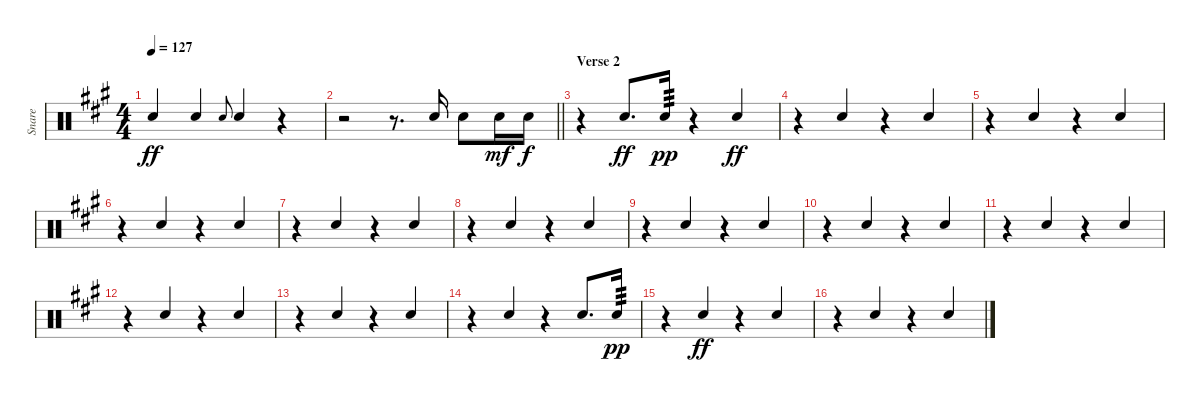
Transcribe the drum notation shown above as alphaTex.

\track ("Snare" "Snare") {instrument percussion}
\staff {score}
\articulation defaults
\ts (4 4)
\tempo 127
\clef neutral
\ks a "Electric Snare (hit)".4{dy ff beam Up} "Electric Snare (hit)".4{beam Up} "Electric Snare (hit)".8{gr onbeat} "Electric Snare (hit)".4{beam Up}
r.4 |
\barLineRight lightlight
r.2{beam Up} r.8{d beam Up} "Electric Snare (hit)".16{beam Down} "Electric Snare (hit)".8{beam Down} "Electric Snare (hit)".16{dy mf beam Down} "Electric Snare (hit)".16{dy f beam Down} |
\section ("" "Verse 2")
r.4 "Electric Snare (hit)".8{d dy ff beam Up} "Electric Snare (hit)".16{tp 3 dy pp beam Up} r.4{beam merge} "Electric Snare (hit)".4{dy ff beam Up} |
r.4{beam merge} "Electric Snare (hit)".4{beam Up} r.4{beam merge} "Electric Snare (hit)".4{beam Up} |
r.4{beam merge} "Electric Snare (hit)".4{beam Up} r.4{beam merge} "Electric Snare (hit)".4{beam Up} |
r.4{beam merge} "Electric Snare (hit)".4{beam Up} r.4{beam merge} "Electric Snare (hit)".4{beam Up} |
r.4{beam merge} "Electric Snare (hit)".4{beam Up} r.4{beam merge} "Electric Snare (hit)".4{beam Up} |
r.4{beam merge} "Electric Snare (hit)".4{beam Up} r.4{beam merge} "Electric Snare (hit)".4{beam Up} |
r.4{beam merge} "Electric Snare (hit)".4{beam Up} r.4{beam merge} "Electric Snare (hit)".4{beam Up} |
r.4{beam merge} "Electric Snare (hit)".4{beam Up} r.4{beam merge} "Electric Snare (hit)".4{beam Up} |
r.4{beam merge} "Electric Snare (hit)".4{beam Up} r.4{beam merge} "Electric Snare (hit)".4{beam Up} |
r.4{beam merge} "Electric Snare (hit)".4{beam Up} r.4{beam merge} "Electric Snare (hit)".4{beam Up} |
r.4{beam merge} "Electric Snare (hit)".4{beam Up} r.4{beam merge} "Electric Snare (hit)".4{beam Up} |
r.4{beam merge} "Electric Snare (hit)".4{beam Up} r.4 "Electric Snare (hit)".8{d beam Up} "Electric Snare (hit)".16{tp 3 dy pp beam Up} |
r.4{beam merge} "Electric Snare (hit)".4{dy ff beam Up} r.4{beam merge} "Electric Snare (hit)".4{beam Up} |
r.4{beam merge} "Electric Snare (hit)".4{beam Up} r.4{beam merge} "Electric Snare (hit)".4{beam Up}
